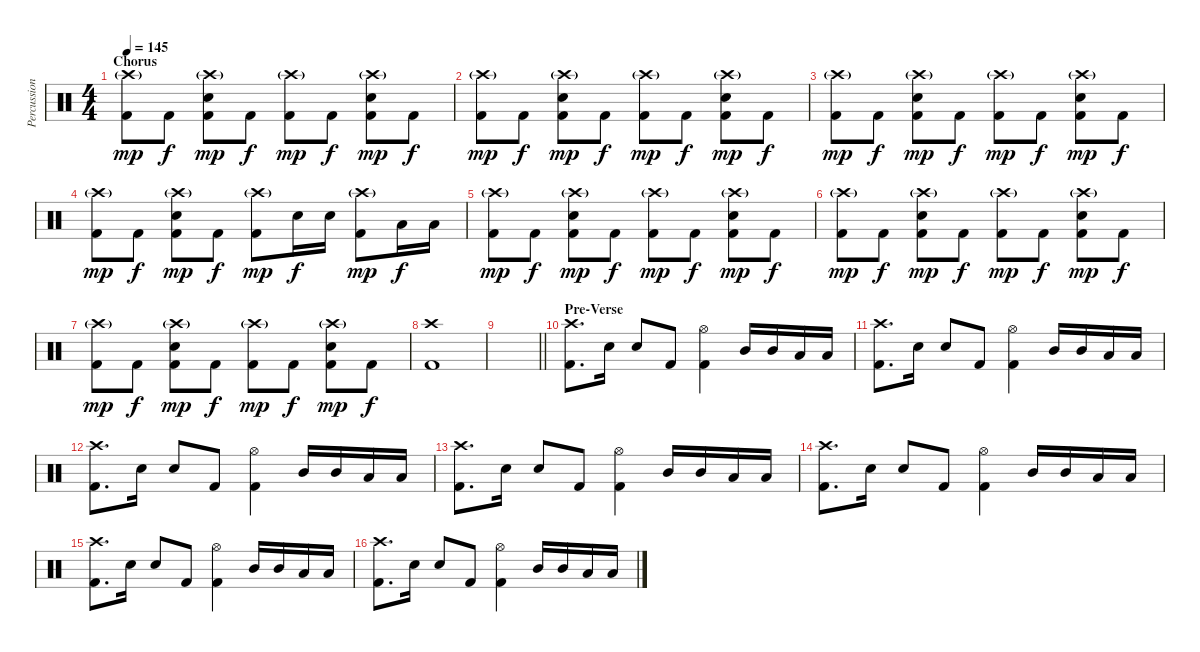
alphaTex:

\track ("Percussion" "Percussion") {instrument percussion}
\staff {score}
\articulation defaults
\ts (4 4)
\section ("" "Chorus")
\tempo 145
\clef neutral
\ks c
("Crash high (hit)"{g} "Kick (hit) 2").8{dy mp} "Kick (hit) 2".8{dy f} ("Crash high (hit)"{g} "Electric Snare (hit)" "Kick (hit) 2").8{dy mp} "Kick (hit) 2".8{dy f} ("Crash high (hit)"{g} "Kick (hit) 2").8{dy mp} "Kick (hit) 2".8{dy f} ("Crash high (hit)"{g} "Electric Snare (hit)" "Kick (hit) 2").8{dy mp} "Kick (hit) 2".8{dy f} |
("Crash high (hit)"{g} "Kick (hit) 2").8{dy mp} "Kick (hit) 2".8{dy f} ("Crash high (hit)"{g} "Electric Snare (hit)" "Kick (hit) 2").8{dy mp} "Kick (hit) 2".8{dy f} ("Crash high (hit)"{g} "Kick (hit) 2").8{dy mp} "Kick (hit) 2".8{dy f} ("Crash high (hit)"{g} "Electric Snare (hit)" "Kick (hit) 2").8{dy mp} "Kick (hit) 2".8{dy f} |
("Crash high (hit)"{g} "Kick (hit) 2").8{dy mp} "Kick (hit) 2".8{dy f} ("Crash high (hit)"{g} "Electric Snare (hit)" "Kick (hit) 2").8{dy mp} "Kick (hit) 2".8{dy f} ("Crash high (hit)"{g} "Kick (hit) 2").8{dy mp} "Kick (hit) 2".8{dy f} ("Crash high (hit)"{g} "Electric Snare (hit)" "Kick (hit) 2").8{dy mp} "Kick (hit) 2".8{dy f} |
("Crash high (hit)"{g} "Kick (hit) 2").8{dy mp} "Kick (hit) 2".8{dy f} ("Crash high (hit)"{g} "Electric Snare (hit)" "Kick (hit) 2").8{dy mp} "Kick (hit) 2".8{dy f} ("Crash high (hit)"{g} "Kick (hit) 2").8{dy mp} "Snare (hit) 2".16{dy f} "Snare (hit) 2".16 ("Crash high (hit)"{g} "Kick (hit) 2").8{dy mp} "Low Tom (hit)".16{dy f} "Low Tom (hit)".16 |
("Crash high (hit)"{g} "Kick (hit) 2").8{dy mp} "Kick (hit) 2".8{dy f} ("Crash high (hit)"{g} "Electric Snare (hit)" "Kick (hit) 2").8{dy mp} "Kick (hit) 2".8{dy f} ("Crash high (hit)"{g} "Kick (hit) 2").8{dy mp} "Kick (hit) 2".8{dy f} ("Crash high (hit)"{g} "Electric Snare (hit)" "Kick (hit) 2").8{dy mp} "Kick (hit) 2".8{dy f} |
("Crash high (hit)"{g} "Kick (hit) 2").8{dy mp} "Kick (hit) 2".8{dy f} ("Crash high (hit)"{g} "Electric Snare (hit)" "Kick (hit) 2").8{dy mp} "Kick (hit) 2".8{dy f} ("Crash high (hit)"{g} "Kick (hit) 2").8{dy mp} "Kick (hit) 2".8{dy f} ("Crash high (hit)"{g} "Electric Snare (hit)" "Kick (hit) 2").8{dy mp} "Kick (hit) 2".8{dy f} |
("Crash high (hit)"{g} "Kick (hit) 2").8{dy mp} "Kick (hit) 2".8{dy f} ("Crash high (hit)"{g} "Electric Snare (hit)" "Kick (hit) 2").8{dy mp} "Kick (hit) 2".8{dy f} ("Crash high (hit)"{g} "Kick (hit) 2").8{dy mp} "Kick (hit) 2".8{dy f} ("Crash high (hit)"{g} "Electric Snare (hit)" "Kick (hit) 2").8{dy mp} "Kick (hit) 2".8{dy f} |
("Crash high (hit)" "Kick (hit) 2").1 |
\barLineRight lightlight
|
\section ("" "Pre-Verse")
("Crash high (hit)" "Kick (hit) 2").8{d} "Snare (hit) 2".16 "Snare (hit) 2".8 "Kick (hit) 2".8 ("Hi-Hat (open)" "Kick (hit) 2").4 "Mid Tom (hit)".16 "Mid Tom (hit)".16 "Low Tom (hit)".16 "Low Tom (hit)".16 |
("Crash high (hit)" "Kick (hit) 2").8{d} "Snare (hit) 2".16 "Snare (hit) 2".8 "Kick (hit) 2".8 ("Hi-Hat (open)" "Kick (hit) 2").4 "Mid Tom (hit)".16 "Mid Tom (hit)".16 "Low Tom (hit)".16 "Low Tom (hit)".16 |
("Crash high (hit)" "Kick (hit) 2").8{d} "Snare (hit) 2".16 "Snare (hit) 2".8 "Kick (hit) 2".8 ("Hi-Hat (open)" "Kick (hit) 2").4 "Mid Tom (hit)".16 "Mid Tom (hit)".16 "Low Tom (hit)".16 "Low Tom (hit)".16 |
("Crash high (hit)" "Kick (hit) 2").8{d} "Snare (hit) 2".16 "Snare (hit) 2".8 "Kick (hit) 2".8 ("Hi-Hat (open)" "Kick (hit) 2").4 "Mid Tom (hit)".16 "Mid Tom (hit)".16 "Low Tom (hit)".16 "Low Tom (hit)".16 |
("Crash high (hit)" "Kick (hit) 2").8{d} "Snare (hit) 2".16 "Snare (hit) 2".8 "Kick (hit) 2".8 ("Hi-Hat (open)" "Kick (hit) 2").4 "Mid Tom (hit)".16 "Mid Tom (hit)".16 "Low Tom (hit)".16 "Low Tom (hit)".16 |
("Crash high (hit)" "Kick (hit) 2").8{d} "Snare (hit) 2".16 "Snare (hit) 2".8 "Kick (hit) 2".8 ("Hi-Hat (open)" "Kick (hit) 2").4 "Mid Tom (hit)".16 "Mid Tom (hit)".16 "Low Tom (hit)".16 "Low Tom (hit)".16 |
("Crash high (hit)" "Kick (hit) 2").8{d} "Snare (hit) 2".16 "Snare (hit) 2".8 "Kick (hit) 2".8 ("Hi-Hat (open)" "Kick (hit) 2").4 "Mid Tom (hit)".16 "Mid Tom (hit)".16 "Low Tom (hit)".16 "Low Tom (hit)".16
